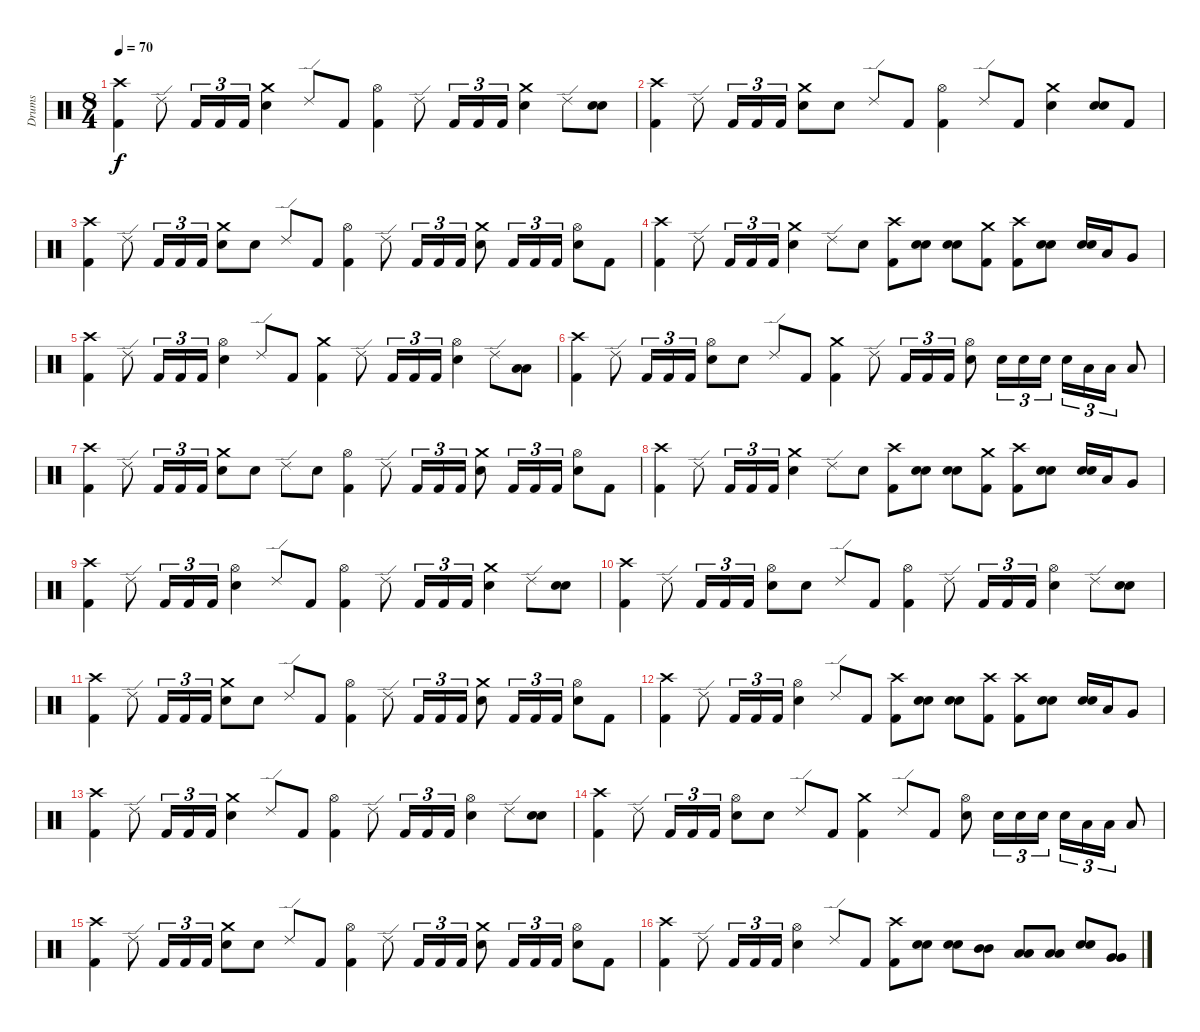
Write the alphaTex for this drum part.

\track ("Drums" "Drums") {instrument percussion}
\staff {score}
\articulation defaults
\ts (8 4)
\tempo 70
\clef neutral
\ks c
("Crash high (hit)" "Kick (hit) 2").4{dy f} "Ride (edge) 2".8 "Kick (hit) 2".16{tu (3 2)} "Kick (hit) 2".16{tu (3 2)} "Kick (hit) 2".16{tu (3 2)} ("Crash medium (hit)" "Electric Snare (hit)").4 "Ride (edge) 2".8 "Kick (hit) 2".8 ("Hi-Hat (open)" "Kick (hit) 2").4 "Ride (edge) 2".8 "Kick (hit) 2".16{tu (3 2)} "Kick (hit) 2".16{tu (3 2)} "Kick (hit) 2".16{tu (3 2)} ("Crash medium (hit)" "Electric Snare (hit)").4 "Ride (edge) 2".8 ("Electric Snare (hit)" "Electric Snare (hit)").8{bu 60} |
("Crash high (hit)" "Kick (hit) 2").4 "Ride (edge) 2".8 "Kick (hit) 2".16{tu (3 2)} "Kick (hit) 2".16{tu (3 2)} "Kick (hit) 2".16{tu (3 2)} ("Crash medium (hit)" "Electric Snare (hit)").8 "Electric Snare (hit)".8 "Ride (edge) 2".8 "Kick (hit) 2".8 ("Hi-Hat (open)" "Kick (hit) 2").4 "Ride (edge) 2".8 "Kick (hit) 2".8 ("Crash medium (hit)" "Electric Snare (hit)").4 ("Electric Snare (hit)" "Electric Snare (hit)").8{bu 60} "Kick (hit) 2".8 |
("Crash high (hit)" "Kick (hit) 2").4 "Ride (edge) 2".8 "Kick (hit) 2".16{tu (3 2)} "Kick (hit) 2".16{tu (3 2)} "Kick (hit) 2".16{tu (3 2)} ("Crash medium (hit)" "Electric Snare (hit)").8 "Electric Snare (hit)".8 "Ride (edge) 2".8 "Kick (hit) 2".8 ("Hi-Hat (open)" "Kick (hit) 2").4 "Ride (edge) 2".8 "Kick (hit) 2".16{tu (3 2)} "Kick (hit) 2".16{tu (3 2)} "Kick (hit) 2".16{tu (3 2)} ("Crash medium (hit)" "Electric Snare (hit)").8 "Kick (hit) 2".16{tu (3 2)} "Kick (hit) 2".16{tu (3 2)} "Kick (hit) 2".16{tu (3 2)} ("Hi-Hat (open)" "Electric Snare (hit)").8 "Kick (hit) 2".8 |
("Crash high (hit)" "Kick (hit) 2").4 "Ride (edge) 2".8 "Kick (hit) 2".16{tu (3 2)} "Kick (hit) 2".16{tu (3 2)} "Kick (hit) 2".16{tu (3 2)} ("Crash medium (hit)" "Electric Snare (hit)").4 "Ride (edge) 2".8 "Electric Snare (hit)".8 ("Crash high (hit)" "Kick (hit) 2").8 ("Electric Snare (hit)" "Electric Snare (hit)").8{bu 60} ("Electric Snare (hit)" "Electric Snare (hit)").8{bu 60} ("Crash medium (hit)" "Kick (hit) 2").8 ("Crash high (hit)" "Kick (hit) 2").8 ("Electric Snare (hit)" "Electric Snare (hit)").8{bu 60} ("Electric Snare (hit)" "Electric Snare (hit)").16{bu 60} "Low Tom (hit)".16 "Very Low Tom (hit)".8 |
("Crash high (hit)" "Kick (hit) 2").4 "Ride (edge) 2".8 "Kick (hit) 2".16{tu (3 2)} "Kick (hit) 2".16{tu (3 2)} "Kick (hit) 2".16{tu (3 2)} ("Hi-Hat (open)" "Electric Snare (hit)").4 "Ride (edge) 2".8 "Kick (hit) 2".8 ("Crash medium (hit)" "Kick (hit) 2").4 "Ride (edge) 2".8 "Kick (hit) 2".16{tu (3 2)} "Kick (hit) 2".16{tu (3 2)} "Kick (hit) 2".16{tu (3 2)} ("Hi-Hat (open)" "Electric Snare (hit)").4 "Ride (edge) 2".8 ("Low Tom (hit)" "Low Tom (hit)").8{bu 60} |
("Crash high (hit)" "Kick (hit) 2").4 "Ride (edge) 2".8 "Kick (hit) 2".16{tu (3 2)} "Kick (hit) 2".16{tu (3 2)} "Kick (hit) 2".16{tu (3 2)} ("Hi-Hat (open)" "Electric Snare (hit)").8 "Electric Snare (hit)".8 "Ride (edge) 2".8 "Kick (hit) 2".8 ("Crash medium (hit)" "Kick (hit) 2").4 "Ride (edge) 2".8 "Kick (hit) 2".16{tu (3 2)} "Kick (hit) 2".16{tu (3 2)} "Kick (hit) 2".16{tu (3 2)} ("Hi-Hat (open)" "Electric Snare (hit)").8 "Electric Snare (hit)".16{tu (3 2)} "Electric Snare (hit)".16{tu (3 2)} "Electric Snare (hit)".16{tu (3 2)} "Electric Snare (hit)".16{tu (3 2)} "Low Tom (hit)".16{tu (3 2)} "Low Tom (hit)".16{tu (3 2)} "Low Tom (hit)".8 |
("Crash high (hit)" "Kick (hit) 2").4 "Ride (edge) 2".8 "Kick (hit) 2".16{tu (3 2)} "Kick (hit) 2".16{tu (3 2)} "Kick (hit) 2".16{tu (3 2)} ("Crash medium (hit)" "Electric Snare (hit)").8 "Electric Snare (hit)".8 "Ride (edge) 2".8 "Electric Snare (hit)".8 ("Hi-Hat (open)" "Kick (hit) 2").4 "Ride (edge) 2".8 "Kick (hit) 2".16{tu (3 2)} "Kick (hit) 2".16{tu (3 2)} "Kick (hit) 2".16{tu (3 2)} ("Crash medium (hit)" "Electric Snare (hit)").8 "Kick (hit) 2".16{tu (3 2)} "Kick (hit) 2".16{tu (3 2)} "Kick (hit) 2".16{tu (3 2)} ("Hi-Hat (open)" "Electric Snare (hit)").8 "Kick (hit) 2".8 |
("Crash high (hit)" "Kick (hit) 2").4 "Ride (edge) 2".8 "Kick (hit) 2".16{tu (3 2)} "Kick (hit) 2".16{tu (3 2)} "Kick (hit) 2".16{tu (3 2)} ("Crash medium (hit)" "Electric Snare (hit)").4 "Ride (edge) 2".8 "Electric Snare (hit)".8 ("Crash high (hit)" "Kick (hit) 2").8 ("Electric Snare (hit)" "Electric Snare (hit)").8{bu 60} ("Electric Snare (hit)" "Electric Snare (hit)").8{bu 60} ("Crash medium (hit)" "Kick (hit) 2").8 ("Crash high (hit)" "Kick (hit) 2").8 ("Electric Snare (hit)" "Electric Snare (hit)").8{bu 60} ("Electric Snare (hit)" "Electric Snare (hit)").16{bu 60} "Low Tom (hit)".16 "Very Low Tom (hit)".8 |
("Crash high (hit)" "Kick (hit) 2").4 "Ride (edge) 2".8 "Kick (hit) 2".16{tu (3 2)} "Kick (hit) 2".16{tu (3 2)} "Kick (hit) 2".16{tu (3 2)} ("Hi-Hat (open)" "Electric Snare (hit)").4 "Ride (edge) 2".8 "Kick (hit) 2".8 ("Hi-Hat (open)" "Kick (hit) 2").4 "Ride (edge) 2".8 "Kick (hit) 2".16{tu (3 2)} "Kick (hit) 2".16{tu (3 2)} "Kick (hit) 2".16{tu (3 2)} ("Crash medium (hit)" "Electric Snare (hit)").4 "Ride (edge) 2".8 ("Electric Snare (hit)" "Electric Snare (hit)").8{bu 60} |
("Crash high (hit)" "Kick (hit) 2").4 "Ride (edge) 2".8 "Kick (hit) 2".16{tu (3 2)} "Kick (hit) 2".16{tu (3 2)} "Kick (hit) 2".16{tu (3 2)} ("Hi-Hat (open)" "Electric Snare (hit)").8 "Electric Snare (hit)".8 "Ride (edge) 2".8 "Kick (hit) 2".8 ("Hi-Hat (open)" "Kick (hit) 2").4 "Ride (edge) 2".8 "Kick (hit) 2".16{tu (3 2)} "Kick (hit) 2".16{tu (3 2)} "Kick (hit) 2".16{tu (3 2)} ("Hi-Hat (open)" "Electric Snare (hit)").4 "Ride (edge) 2".8 ("Electric Snare (hit)" "Electric Snare (hit)").8{bu 60} |
("Crash high (hit)" "Kick (hit) 2").4 "Ride (edge) 2".8 "Kick (hit) 2".16{tu (3 2)} "Kick (hit) 2".16{tu (3 2)} "Kick (hit) 2".16{tu (3 2)} ("Crash medium (hit)" "Electric Snare (hit)").8 "Electric Snare (hit)".8 "Ride (edge) 2".8 "Kick (hit) 2".8 ("Hi-Hat (open)" "Kick (hit) 2").4 "Ride (edge) 2".8 "Kick (hit) 2".16{tu (3 2)} "Kick (hit) 2".16{tu (3 2)} "Kick (hit) 2".16{tu (3 2)} ("Crash medium (hit)" "Electric Snare (hit)").8 "Kick (hit) 2".16{tu (3 2)} "Kick (hit) 2".16{tu (3 2)} "Kick (hit) 2".16{tu (3 2)} ("Hi-Hat (open)" "Electric Snare (hit)").8 "Kick (hit) 2".8 |
("Crash high (hit)" "Kick (hit) 2").4 "Ride (edge) 2".8 "Kick (hit) 2".16{tu (3 2)} "Kick (hit) 2".16{tu (3 2)} "Kick (hit) 2".16{tu (3 2)} ("Hi-Hat (open)" "Electric Snare (hit)").4 "Ride (edge) 2".8 "Kick (hit) 2".8 ("Crash high (hit)" "Kick (hit) 2").8 ("Electric Snare (hit)" "Electric Snare (hit)").8{bu 60} ("Electric Snare (hit)" "Electric Snare (hit)").8{bu 60} ("Crash high (hit)" "Kick (hit) 2").8 ("Crash high (hit)" "Kick (hit) 2").8 ("Electric Snare (hit)" "Electric Snare (hit)").8{bu 60} ("Electric Snare (hit)" "Electric Snare (hit)").16{bu 60} "Low Tom (hit)".16 "Very Low Tom (hit)".8 |
("Crash high (hit)" "Kick (hit) 2").4 "Ride (edge) 2".8 "Kick (hit) 2".16{tu (3 2)} "Kick (hit) 2".16{tu (3 2)} "Kick (hit) 2".16{tu (3 2)} ("Crash medium (hit)" "Electric Snare (hit)").4 "Ride (edge) 2".8 "Kick (hit) 2".8 ("Hi-Hat (open)" "Kick (hit) 2").4 "Ride (edge) 2".8 "Kick (hit) 2".16{tu (3 2)} "Kick (hit) 2".16{tu (3 2)} "Kick (hit) 2".16{tu (3 2)} ("Hi-Hat (open)" "Electric Snare (hit)").4 "Ride (edge) 2".8 ("Electric Snare (hit)" "Electric Snare (hit)").8{bu 60} |
("Crash high (hit)" "Kick (hit) 2").4 "Ride (edge) 2".8 "Kick (hit) 2".16{tu (3 2)} "Kick (hit) 2".16{tu (3 2)} "Kick (hit) 2".16{tu (3 2)} ("Hi-Hat (open)" "Electric Snare (hit)").8 "Electric Snare (hit)".8 "Ride (edge) 2".8 "Kick (hit) 2".8 ("Crash medium (hit)" "Kick (hit) 2").4 "Ride (edge) 2".8 "Kick (hit) 2".8 ("Hi-Hat (open)" "Electric Snare (hit)").8 "Electric Snare (hit)".16{tu (3 2)} "Electric Snare (hit)".16{tu (3 2)} "Electric Snare (hit)".16{tu (3 2)} "Electric Snare (hit)".16{tu (3 2)} "Low Tom (hit)".16{tu (3 2)} "Low Tom (hit)".16{tu (3 2)} "Low Tom (hit)".8 |
("Crash high (hit)" "Kick (hit) 2").4 "Ride (edge) 2".8 "Kick (hit) 2".16{tu (3 2)} "Kick (hit) 2".16{tu (3 2)} "Kick (hit) 2".16{tu (3 2)} ("Crash medium (hit)" "Electric Snare (hit)").8 "Electric Snare (hit)".8 "Ride (edge) 2".8 "Kick (hit) 2".8 ("Hi-Hat (open)" "Kick (hit) 2").4 "Ride (edge) 2".8 "Kick (hit) 2".16{tu (3 2)} "Kick (hit) 2".16{tu (3 2)} "Kick (hit) 2".16{tu (3 2)} ("Crash medium (hit)" "Electric Snare (hit)").8 "Kick (hit) 2".16{tu (3 2)} "Kick (hit) 2".16{tu (3 2)} "Kick (hit) 2".16{tu (3 2)} ("Hi-Hat (open)" "Electric Snare (hit)").8 "Kick (hit) 2".8 |
("Crash high (hit)" "Kick (hit) 2").4 "Ride (edge) 2".8 "Kick (hit) 2".16{tu (3 2)} "Kick (hit) 2".16{tu (3 2)} "Kick (hit) 2".16{tu (3 2)} ("Hi-Hat (open)" "Electric Snare (hit)").4 "Ride (edge) 2".8 "Kick (hit) 2".8 ("Crash high (hit)" "Kick (hit) 2").8 ("Electric Snare (hit)" "Electric Snare (hit)").8{bu 60} ("Electric Snare (hit)" "Electric Snare (hit)").8{bu 60} ("Mid Tom (hit)" "Mid Tom (hit)").8{bu 60} ("Low Tom (hit)" "Low Tom (hit)").8{bu 60} ("Low Tom (hit)" "Low Tom (hit)").8{bu 60} ("Electric Snare (hit)" "Electric Snare (hit)").8{bu 60} ("Very Low Tom (hit)" "Very Low Tom (hit)").8{bu 60}
